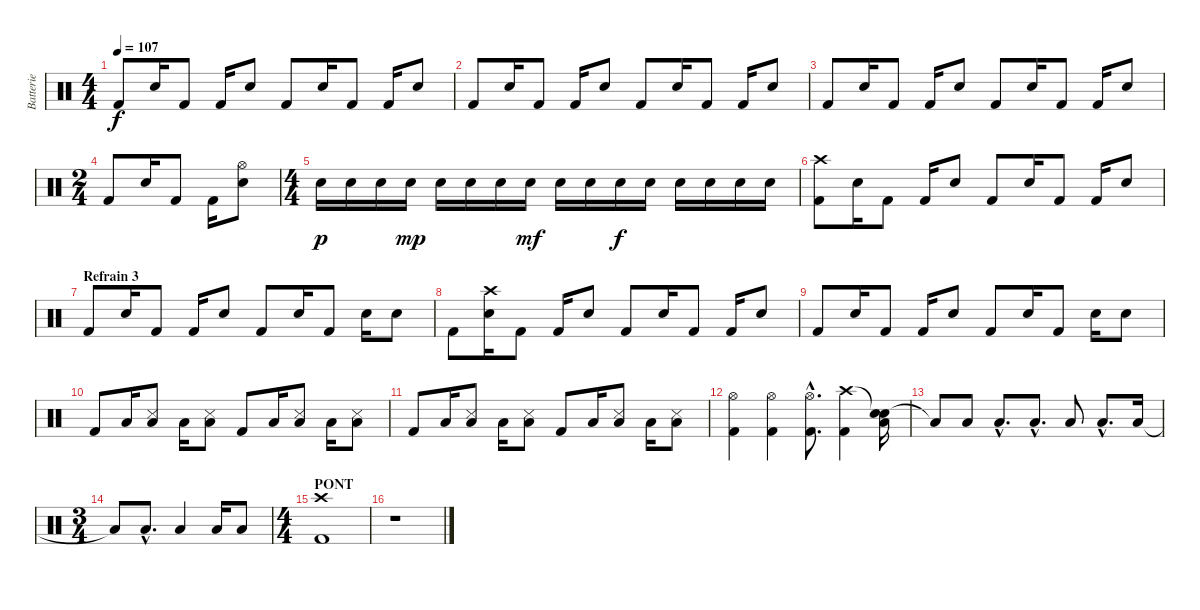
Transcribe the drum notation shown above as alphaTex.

\track ("Batterie" "Batterie") {instrument percussion}
\staff {score}
\articulation defaults
\ts (4 4)
\tempo 107
\clef neutral
\ks c "Kick (hit) 2".8{dy f} "Electric Snare (hit)".16 "Kick (hit) 2".8 "Kick (hit) 2".16 "Electric Snare (hit)".8 "Kick (hit) 2".8 "Electric Snare (hit)".16 "Kick (hit) 2".8 "Kick (hit) 2".16 "Electric Snare (hit)".8
|
"Kick (hit) 2".8 "Electric Snare (hit)".16 "Kick (hit) 2".8 "Kick (hit) 2".16 "Electric Snare (hit)".8 "Kick (hit) 2".8 "Electric Snare (hit)".16 "Kick (hit) 2".8 "Kick (hit) 2".16 "Electric Snare (hit)".8 |
"Kick (hit) 2".8 "Electric Snare (hit)".16 "Kick (hit) 2".8 "Kick (hit) 2".16 "Electric Snare (hit)".8 "Kick (hit) 2".8 "Electric Snare (hit)".16 "Kick (hit) 2".8 "Kick (hit) 2".16 "Electric Snare (hit)".8 |
\ts (2 4)
"Kick (hit) 2".8 "Electric Snare (hit)".16 "Kick (hit) 2".8 "Kick (hit) 2".16 ("Hi-Hat (open)" "Electric Snare (hit)").8 |
\ts (4 4)
"Electric Snare (hit)".16{dy p} "Electric Snare (hit)".16 "Electric Snare (hit)".16 "Electric Snare (hit)".16{dy mp} "Electric Snare (hit)".16 "Electric Snare (hit)".16 "Electric Snare (hit)".16 "Electric Snare (hit)".16{dy mf} "Electric Snare (hit)".16 "Electric Snare (hit)".16 "Electric Snare (hit)".16{dy f} "Electric Snare (hit)".16 "Electric Snare (hit)".16 "Electric Snare (hit)".16 "Electric Snare (hit)".16 "Electric Snare (hit)".16 |
("Crash high (hit)" "Kick (hit) 2").8 "Electric Snare (hit)".16 "Kick (hit) 2".8 "Kick (hit) 2".16 "Electric Snare (hit)".8 "Kick (hit) 2".8 "Electric Snare (hit)".16 "Kick (hit) 2".8 "Kick (hit) 2".16 "Electric Snare (hit)".8 |
\section ("" "Refrain 3")
"Kick (hit) 2".8 "Electric Snare (hit)".16 "Kick (hit) 2".8 "Kick (hit) 2".16 "Electric Snare (hit)".8 "Kick (hit) 2".8 "Electric Snare (hit)".16 "Kick (hit) 2".8 "Electric Snare (hit)".16 "Electric Snare (hit)".8 |
"Kick (hit) 2".8 ("Crash high (hit)" "Electric Snare (hit)").16 "Kick (hit) 2".8 "Kick (hit) 2".16 "Electric Snare (hit)".8 "Kick (hit) 2".8 "Electric Snare (hit)".16 "Kick (hit) 2".8 "Kick (hit) 2".16 "Electric Snare (hit)".8 |
"Kick (hit) 2".8 "Electric Snare (hit)".16 "Kick (hit) 2".8 "Kick (hit) 2".16 "Electric Snare (hit)".8 "Kick (hit) 2".8 "Electric Snare (hit)".16 "Kick (hit) 2".8 "Electric Snare (hit)".16 "Electric Snare (hit)".8 |
"Kick (hit) 2".8 "Low Tom (hit)".16 ("Snare (side stick) 3" "Low Tom (hit)").8 "Low Tom (hit)".16 ("Snare (side stick) 3" "Low Tom (hit)").8 "Kick (hit) 2".8 "Low Tom (hit)".16 ("Snare (side stick) 3" "Low Tom (hit)").8 "Low Tom (hit)".16 ("Snare (side stick) 3" "Low Tom (hit)").8 |
"Kick (hit) 2".8 "Low Tom (hit)".16 ("Snare (side stick) 3" "Low Tom (hit)").8 "Low Tom (hit)".16 ("Snare (side stick) 3" "Low Tom (hit)").8 "Kick (hit) 2".8 "Low Tom (hit)".16 ("Snare (side stick) 3" "Low Tom (hit)").8 "Low Tom (hit)".16 ("Snare (side stick) 3" "Low Tom (hit)").8 |
("Hi-Hat (open)" "Kick (hit) 2").4 ("Hi-Hat (open)" "Kick (hit) 2").4 ("Hi-Hat (open)"{hac} "Kick (hit) 2"{hac}).8{d} ("Crash high (hit)" "Kick (hit) 2").4 ("Snare (hit)"{t} "Low Floor Tom (hit)" "Snare (hit)").16 |
"Low Floor Tom (hit)"{t}.8 "Low Floor Tom (hit)".8 "Low Floor Tom (hit)"{hac}.8{d} "Low Floor Tom (hit)"{hac}.8{d} "Low Floor Tom (hit)".8 "Low Floor Tom (hit)"{hac}.8{d} "Low Floor Tom (hit)".16 |
\ts (3 4)
"Low Floor Tom (hit)"{t}.8 "Low Floor Tom (hit)"{hac}.8{d} "Low Floor Tom (hit)".4 "Low Floor Tom (hit)".16 "Low Floor Tom (hit)".8 |
\ts (4 4)
\section ("" "PONT")
("Crash high (hit)" "Kick (hit) 2").1 |
r.1
